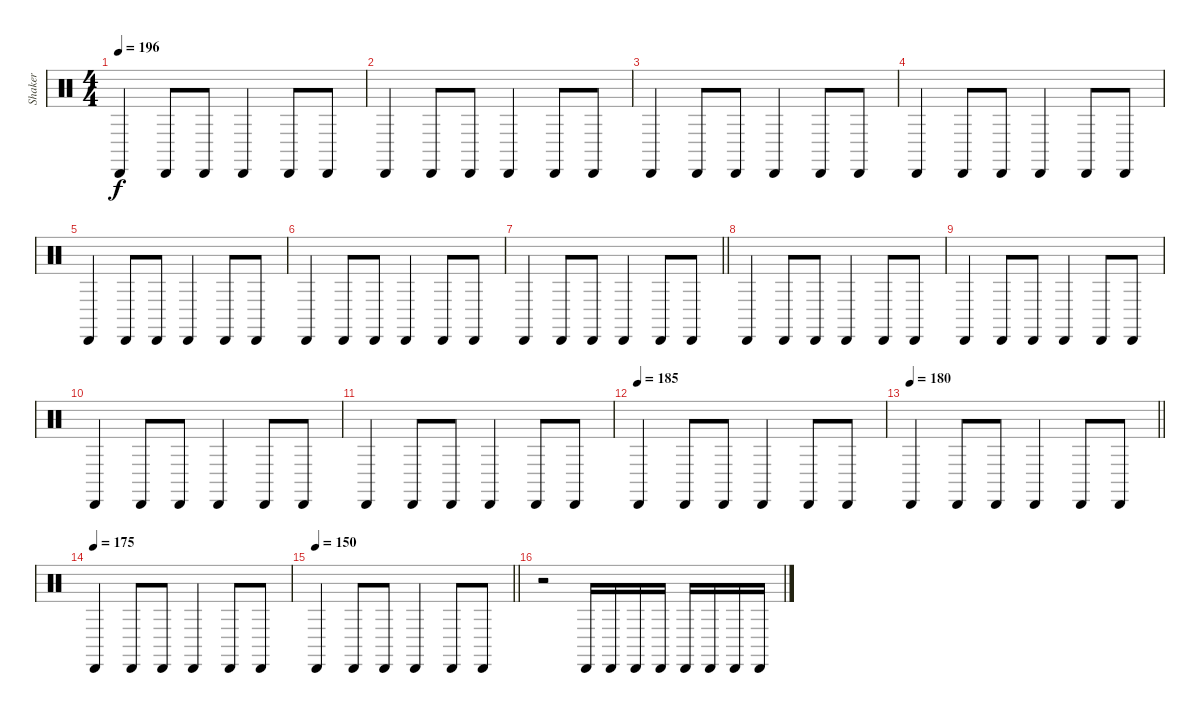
\track ("Shaker" "Shaker") {instrument percussion bank 126}
\staff {score}
\articulation defaults
\ts (4 4)
\tempo 196
\clef neutral
\ks c "Cabasa (hit)".4{dy f} "Cabasa (hit)".8 "Cabasa (hit)".8 "Cabasa (hit)".4 "Cabasa (hit)".8 "Cabasa (hit)".8
|
"Cabasa (hit)".4 "Cabasa (hit)".8 "Cabasa (hit)".8 "Cabasa (hit)".4 "Cabasa (hit)".8 "Cabasa (hit)".8 |
"Cabasa (hit)".4 "Cabasa (hit)".8 "Cabasa (hit)".8 "Cabasa (hit)".4 "Cabasa (hit)".8 "Cabasa (hit)".8 |
"Cabasa (hit)".4 "Cabasa (hit)".8 "Cabasa (hit)".8 "Cabasa (hit)".4 "Cabasa (hit)".8 "Cabasa (hit)".8 |
"Cabasa (hit)".4 "Cabasa (hit)".8 "Cabasa (hit)".8 "Cabasa (hit)".4 "Cabasa (hit)".8 "Cabasa (hit)".8 |
"Cabasa (hit)".4 "Cabasa (hit)".8 "Cabasa (hit)".8 "Cabasa (hit)".4 "Cabasa (hit)".8 "Cabasa (hit)".8 |
\barLineRight lightlight "Cabasa (hit)".4 "Cabasa (hit)".8 "Cabasa (hit)".8 "Cabasa (hit)".4 "Cabasa (hit)".8 "Cabasa (hit)".8
|
\section ("" "")
"Cabasa (hit)".4 "Cabasa (hit)".8 "Cabasa (hit)".8 "Cabasa (hit)".4 "Cabasa (hit)".8 "Cabasa (hit)".8 |
"Cabasa (hit)".4 "Cabasa (hit)".8 "Cabasa (hit)".8 "Cabasa (hit)".4 "Cabasa (hit)".8 "Cabasa (hit)".8 |
"Cabasa (hit)".4 "Cabasa (hit)".8 "Cabasa (hit)".8 "Cabasa (hit)".4 "Cabasa (hit)".8 "Cabasa (hit)".8 |
"Cabasa (hit)".4 "Cabasa (hit)".8 "Cabasa (hit)".8 "Cabasa (hit)".4 "Cabasa (hit)".8 "Cabasa (hit)".8 |
\tempo (185)
"Cabasa (hit)".4 "Cabasa (hit)".8 "Cabasa (hit)".8 "Cabasa (hit)".4 "Cabasa (hit)".8 "Cabasa (hit)".8 |
\tempo 180
\barLineRight lightlight "Cabasa (hit)".4 "Cabasa (hit)".8 "Cabasa (hit)".8 "Cabasa (hit)".4 "Cabasa (hit)".8 "Cabasa (hit)".8
|
\tempo (175)
"Cabasa (hit)".4 "Cabasa (hit)".8 "Cabasa (hit)".8 "Cabasa (hit)".4 "Cabasa (hit)".8 "Cabasa (hit)".8 |
\tempo 150
\barLineRight lightlight "Cabasa (hit)".4 "Cabasa (hit)".8 "Cabasa (hit)".8 "Cabasa (hit)".4 "Cabasa (hit)".8 "Cabasa (hit)".8
|
r.2 "Cabasa (hit)".16 "Cabasa (hit)".16 "Cabasa (hit)".16 "Cabasa (hit)".16 "Cabasa (hit)".16 "Cabasa (hit)".16 "Cabasa (hit)".16 "Cabasa (hit)".16
